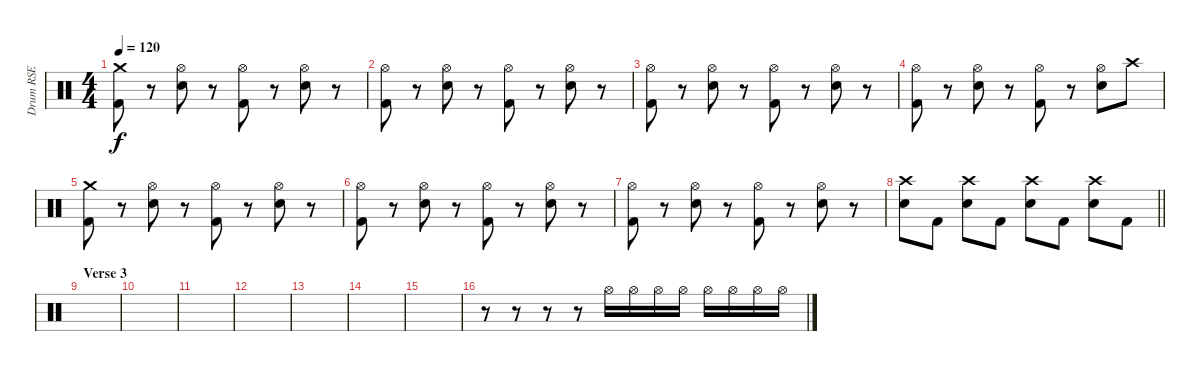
\track ("Drum RSE" "Drum RSE") {instrument percussion}
\staff {score}
\articulation defaults
\ts (4 4)
\tempo 120
\clef neutral
\ks c
("Crash medium (hit)" "Kick (hit) 2").8{dy f} r.8 ("Hi-Hat (open)" "Snare (hit) 2").8 r.8 ("Hi-Hat (open)" "Kick (hit) 2").8 r.8 ("Hi-Hat (open)" "Snare (hit) 2").8 r.8 |
("Hi-Hat (open)" "Kick (hit) 2").8 r.8 ("Hi-Hat (open)" "Snare (hit) 2").8 r.8 ("Hi-Hat (open)" "Kick (hit) 2").8 r.8 ("Hi-Hat (open)" "Snare (hit) 2").8 r.8 |
("Hi-Hat (open)" "Kick (hit) 2").8 r.8 ("Hi-Hat (open)" "Snare (hit) 2").8 r.8 ("Hi-Hat (open)" "Kick (hit) 2").8 r.8 ("Hi-Hat (open)" "Snare (hit) 2").8 r.8 |
("Hi-Hat (open)" "Kick (hit) 2").8 r.8 ("Hi-Hat (open)" "Snare (hit) 2").8 r.8 ("Hi-Hat (open)" "Kick (hit) 2").8 r.8 ("Hi-Hat (open)" "Snare (hit) 2").8 "Crash high (hit)".8 |
("Crash medium (hit)" "Kick (hit) 2").8 r.8 ("Hi-Hat (open)" "Snare (hit) 2").8 r.8 ("Hi-Hat (open)" "Kick (hit) 2").8 r.8 ("Hi-Hat (open)" "Snare (hit) 2").8 r.8 |
("Hi-Hat (open)" "Kick (hit) 2").8 r.8 ("Hi-Hat (open)" "Snare (hit) 2").8 r.8 ("Hi-Hat (open)" "Kick (hit) 2").8 r.8 ("Hi-Hat (open)" "Snare (hit) 2").8 r.8 |
("Hi-Hat (open)" "Kick (hit) 2").8 r.8 ("Hi-Hat (open)" "Snare (hit) 2").8 r.8 ("Hi-Hat (open)" "Kick (hit) 2").8 r.8 ("Hi-Hat (open)" "Snare (hit) 2").8 r.8 |
\barLineRight lightlight
("Crash high (hit)" "Snare (hit) 2").8 "Kick (hit) 2".8 ("Crash high (hit)" "Snare (hit) 2").8 "Kick (hit) 2".8 ("Crash high (hit)" "Snare (hit) 2").8 "Kick (hit) 2".8 ("Crash high (hit)" "Snare (hit) 2").8 "Kick (hit) 2".8 |
\section ("" "Verse 3")
|
|
|
|
|
|
|
r.8 r.8 r.8 r.8{volume 5} "Hi-Hat (open)".16{volume 13} "Hi-Hat (open)".16 "Hi-Hat (open)".16 "Hi-Hat (open)".16 "Hi-Hat (open)".16 "Hi-Hat (open)".16 "Hi-Hat (open)".16 "Hi-Hat (open)".16
